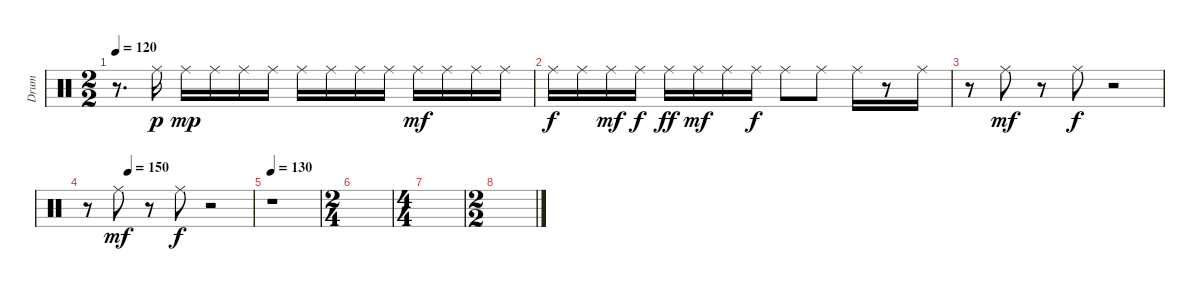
\track ("Drum" "Drum") {instrument percussion}
\staff {score}
\articulation defaults
\ts (2 2)
\tempo 120
\clef neutral
\ks c
r.8{d dy fff} "Ride (middle)".16{dy p} "Ride (middle)".16{dy mp} "Ride (middle)".16 "Ride (middle)".16 "Ride (middle)".16 "Ride (middle)".16 "Ride (middle)".16 "Ride (middle)".16 "Ride (middle)".16 "Ride (middle)".16{dy mf} "Ride (middle)".16 "Ride (middle)".16 "Ride (middle)".16 |
"Ride (middle)".16{dy f} "Ride (middle)".16 "Ride (middle)".16{dy mf} "Ride (middle)".16{dy f} "Ride (middle)".16{dy ff} "Ride (middle)".16{dy mf} "Ride (middle)".16 "Ride (middle)".16{dy f} "Ride (middle)".8 "Ride (middle)".8 "Ride (middle)".16 r.8 "Ride (middle)".16 |
r.8 "Ride (middle)".8{dy mf} r.8 "Ride (middle)".8{dy f} r.2 |
\tempo (150 0.25)
r.8 "Ride (middle)".8{dy mf} r.8 "Ride (middle)".8{dy f} r.2 |
\tempo 130
r.1 |
\ts (2 4)
|
\ts (4 4)
|
\ts (2 2)
